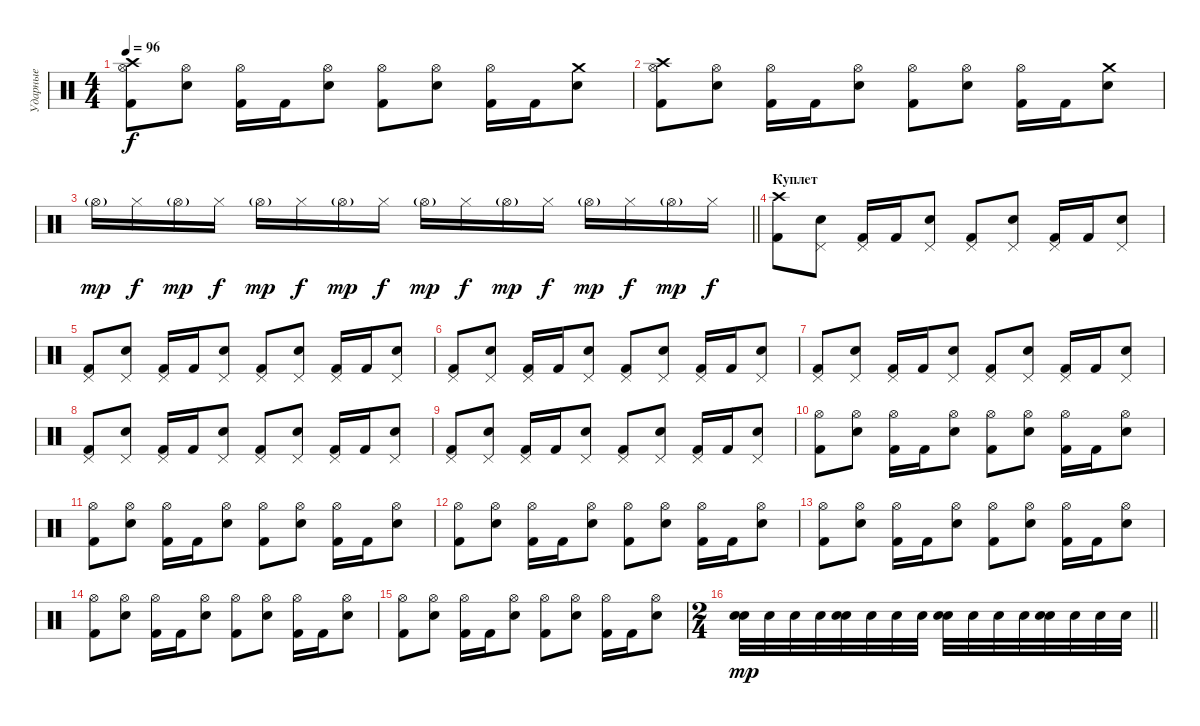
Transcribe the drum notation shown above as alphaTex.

\track ("Ударные" "Ударные") {instrument percussion}
\staff {score}
\articulation defaults
\ts (4 4)
\tempo 96
\clef neutral
\ks c
("Hi-Hat (open)" "Crash high (hit)" "Kick (hit) 2").8{dy f} ("Hi-Hat (open)" "Electric Snare (hit)").8 ("Hi-Hat (open)" "Kick (hit) 2").16 "Kick (hit) 2".16 ("Hi-Hat (open)" "Electric Snare (hit)").8 ("Hi-Hat (open)" "Kick (hit) 2").8 ("Hi-Hat (open)" "Electric Snare (hit)").8 ("Hi-Hat (open)" "Kick (hit) 2").16 "Kick (hit) 2".16 ("Crash medium (hit)" "Electric Snare (hit)").8 |
("Hi-Hat (open)" "Crash high (hit)" "Kick (hit) 2").8 ("Hi-Hat (open)" "Electric Snare (hit)").8 ("Hi-Hat (open)" "Kick (hit) 2").16 "Kick (hit) 2".16 ("Hi-Hat (open)" "Electric Snare (hit)").8 ("Hi-Hat (open)" "Kick (hit) 2").8 ("Hi-Hat (open)" "Electric Snare (hit)").8 ("Hi-Hat (open)" "Kick (hit) 2").16 "Kick (hit) 2".16 ("Crash medium (hit)" "Electric Snare (hit)").8 |
\barLineRight lightlight "Hi-Hat (open)"{g}.16{dy mp} "Hi-Hat (closed)".16{dy f} "Hi-Hat (open)"{g}.16{dy mp} "Hi-Hat (closed)".16{dy f} "Hi-Hat (open)"{g}.16{dy mp} "Hi-Hat (closed)".16{dy f} "Hi-Hat (open)"{g}.16{dy mp} "Hi-Hat (closed)".16{dy f} "Hi-Hat (open)"{g}.16{dy mp} "Hi-Hat (closed)".16{dy f} "Hi-Hat (open)"{g}.16{dy mp} "Hi-Hat (closed)".16{dy f} "Hi-Hat (open)"{g}.16{dy mp} "Hi-Hat (closed)".16{dy f} "Hi-Hat (open)"{g}.16{dy mp} "Hi-Hat (closed)".16{dy f}
|
\section ("" "Куплет")
("Crash high (hit)" "Kick (hit) 2").8 ("Pedal Hi-Hat (hit)" "Electric Snare (hit)").8 ("Pedal Hi-Hat (hit)" "Kick (hit) 2").16 "Kick (hit) 2".16 ("Pedal Hi-Hat (hit)" "Electric Snare (hit)").8 ("Pedal Hi-Hat (hit)" "Kick (hit) 2").8 ("Pedal Hi-Hat (hit)" "Electric Snare (hit)").8 ("Pedal Hi-Hat (hit)" "Kick (hit) 2").16 "Kick (hit) 2".16 ("Pedal Hi-Hat (hit)" "Electric Snare (hit)").8 |
("Pedal Hi-Hat (hit)" "Kick (hit) 2").8 ("Pedal Hi-Hat (hit)" "Electric Snare (hit)").8 ("Pedal Hi-Hat (hit)" "Kick (hit) 2").16 "Kick (hit) 2".16 ("Pedal Hi-Hat (hit)" "Electric Snare (hit)").8 ("Pedal Hi-Hat (hit)" "Kick (hit) 2").8 ("Pedal Hi-Hat (hit)" "Electric Snare (hit)").8 ("Pedal Hi-Hat (hit)" "Kick (hit) 2").16 "Kick (hit) 2".16 ("Pedal Hi-Hat (hit)" "Electric Snare (hit)").8 |
("Pedal Hi-Hat (hit)" "Kick (hit) 2").8 ("Pedal Hi-Hat (hit)" "Electric Snare (hit)").8 ("Pedal Hi-Hat (hit)" "Kick (hit) 2").16 "Kick (hit) 2".16 ("Pedal Hi-Hat (hit)" "Electric Snare (hit)").8 ("Pedal Hi-Hat (hit)" "Kick (hit) 2").8 ("Pedal Hi-Hat (hit)" "Electric Snare (hit)").8 ("Pedal Hi-Hat (hit)" "Kick (hit) 2").16 "Kick (hit) 2".16 ("Pedal Hi-Hat (hit)" "Electric Snare (hit)").8 |
("Pedal Hi-Hat (hit)" "Kick (hit) 2").8 ("Pedal Hi-Hat (hit)" "Electric Snare (hit)").8 ("Pedal Hi-Hat (hit)" "Kick (hit) 2").16 "Kick (hit) 2".16 ("Pedal Hi-Hat (hit)" "Electric Snare (hit)").8 ("Pedal Hi-Hat (hit)" "Kick (hit) 2").8 ("Pedal Hi-Hat (hit)" "Electric Snare (hit)").8 ("Pedal Hi-Hat (hit)" "Kick (hit) 2").16 "Kick (hit) 2".16 ("Pedal Hi-Hat (hit)" "Electric Snare (hit)").8 |
("Pedal Hi-Hat (hit)" "Kick (hit) 2").8 ("Pedal Hi-Hat (hit)" "Electric Snare (hit)").8 ("Pedal Hi-Hat (hit)" "Kick (hit) 2").16 "Kick (hit) 2".16 ("Pedal Hi-Hat (hit)" "Electric Snare (hit)").8 ("Pedal Hi-Hat (hit)" "Kick (hit) 2").8 ("Pedal Hi-Hat (hit)" "Electric Snare (hit)").8 ("Pedal Hi-Hat (hit)" "Kick (hit) 2").16 "Kick (hit) 2".16 ("Pedal Hi-Hat (hit)" "Electric Snare (hit)").8 |
("Pedal Hi-Hat (hit)" "Kick (hit) 2").8 ("Pedal Hi-Hat (hit)" "Electric Snare (hit)").8 ("Pedal Hi-Hat (hit)" "Kick (hit) 2").16 "Kick (hit) 2".16 ("Pedal Hi-Hat (hit)" "Electric Snare (hit)").8 ("Pedal Hi-Hat (hit)" "Kick (hit) 2").8 ("Pedal Hi-Hat (hit)" "Electric Snare (hit)").8 ("Pedal Hi-Hat (hit)" "Kick (hit) 2").16 "Kick (hit) 2".16 ("Pedal Hi-Hat (hit)" "Electric Snare (hit)").8 |
("Hi-Hat (open)" "Kick (hit) 2").8 ("Hi-Hat (open)" "Electric Snare (hit)").8 ("Hi-Hat (open)" "Kick (hit) 2").16 "Kick (hit) 2".16 ("Hi-Hat (open)" "Electric Snare (hit)").8 ("Hi-Hat (open)" "Kick (hit) 2").8 ("Hi-Hat (open)" "Electric Snare (hit)").8 ("Hi-Hat (open)" "Kick (hit) 2").16 "Kick (hit) 2".16 ("Hi-Hat (open)" "Electric Snare (hit)").8 |
("Hi-Hat (open)" "Kick (hit) 2").8 ("Hi-Hat (open)" "Electric Snare (hit)").8 ("Hi-Hat (open)" "Kick (hit) 2").16 "Kick (hit) 2".16 ("Hi-Hat (open)" "Electric Snare (hit)").8 ("Hi-Hat (open)" "Kick (hit) 2").8 ("Hi-Hat (open)" "Electric Snare (hit)").8 ("Hi-Hat (open)" "Kick (hit) 2").16 "Kick (hit) 2".16 ("Hi-Hat (open)" "Electric Snare (hit)").8 |
("Hi-Hat (open)" "Kick (hit) 2").8 ("Hi-Hat (open)" "Electric Snare (hit)").8 ("Hi-Hat (open)" "Kick (hit) 2").16 "Kick (hit) 2".16 ("Hi-Hat (open)" "Electric Snare (hit)").8 ("Hi-Hat (open)" "Kick (hit) 2").8 ("Hi-Hat (open)" "Electric Snare (hit)").8 ("Hi-Hat (open)" "Kick (hit) 2").16 "Kick (hit) 2".16 ("Hi-Hat (open)" "Electric Snare (hit)").8 |
("Hi-Hat (open)" "Kick (hit) 2").8 ("Hi-Hat (open)" "Electric Snare (hit)").8 ("Hi-Hat (open)" "Kick (hit) 2").16 "Kick (hit) 2".16 ("Hi-Hat (open)" "Electric Snare (hit)").8 ("Hi-Hat (open)" "Kick (hit) 2").8 ("Hi-Hat (open)" "Electric Snare (hit)").8 ("Hi-Hat (open)" "Kick (hit) 2").16 "Kick (hit) 2".16 ("Hi-Hat (open)" "Electric Snare (hit)").8 |
("Hi-Hat (open)" "Kick (hit) 2").8 ("Hi-Hat (open)" "Electric Snare (hit)").8 ("Hi-Hat (open)" "Kick (hit) 2").16 "Kick (hit) 2".16 ("Hi-Hat (open)" "Electric Snare (hit)").8 ("Hi-Hat (open)" "Kick (hit) 2").8 ("Hi-Hat (open)" "Electric Snare (hit)").8 ("Hi-Hat (open)" "Kick (hit) 2").16 "Kick (hit) 2".16 ("Hi-Hat (open)" "Electric Snare (hit)").8 |
("Hi-Hat (open)" "Kick (hit) 2").8 ("Hi-Hat (open)" "Electric Snare (hit)").8 ("Hi-Hat (open)" "Kick (hit) 2").16 "Kick (hit) 2".16 ("Hi-Hat (open)" "Electric Snare (hit)").8 ("Hi-Hat (open)" "Kick (hit) 2").8 ("Hi-Hat (open)" "Electric Snare (hit)").8 ("Hi-Hat (open)" "Kick (hit) 2").16 "Kick (hit) 2".16 ("Hi-Hat (open)" "Electric Snare (hit)").8 |
\ts (2 4)
\barLineRight lightlight
("Electric Snare (hit)" "Electric Snare (hit)").32{dy mp} "Electric Snare (hit)".32 "Electric Snare (hit)".32 "Electric Snare (hit)".32 ("Electric Snare (hit)" "Electric Snare (hit)").32 "Electric Snare (hit)".32 "Electric Snare (hit)".32 "Electric Snare (hit)".32 ("Electric Snare (hit)" "Electric Snare (hit)").32 "Electric Snare (hit)".32 "Electric Snare (hit)".32 "Electric Snare (hit)".32 ("Electric Snare (hit)" "Electric Snare (hit)").32 "Electric Snare (hit)".32 "Electric Snare (hit)".32 "Electric Snare (hit)".32
